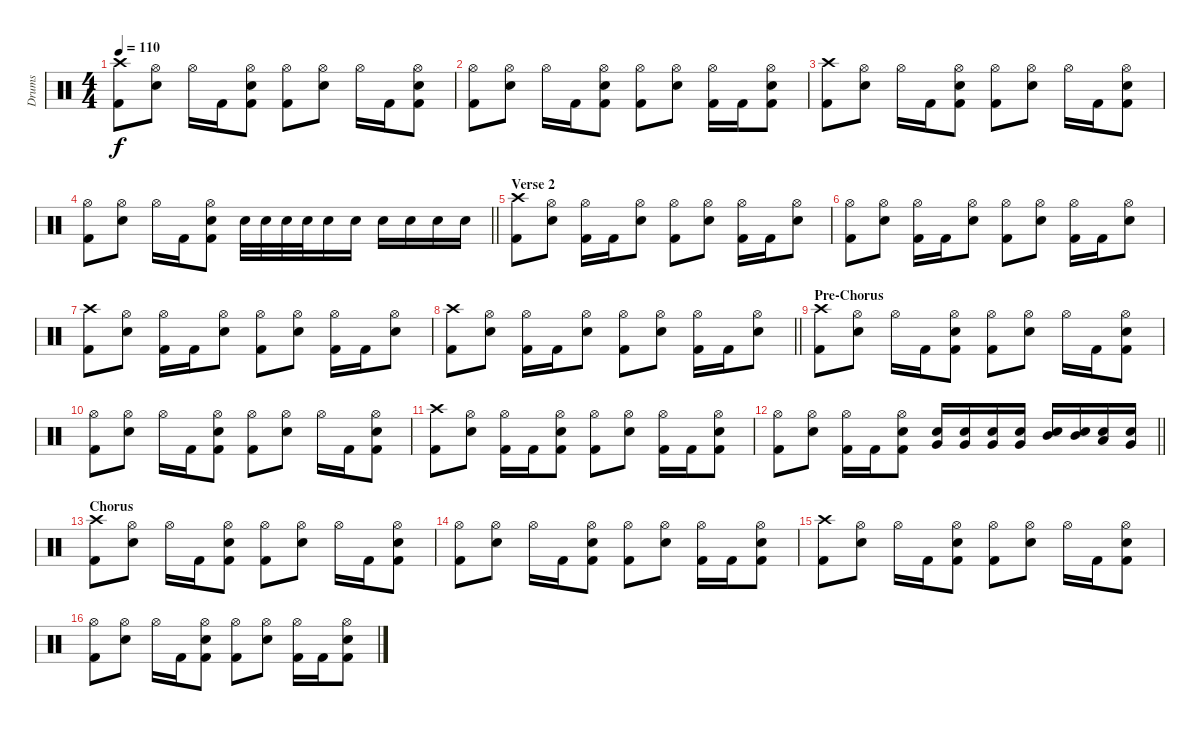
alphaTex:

\track ("Drums" "Drums") {instrument percussion}
\staff {score}
\articulation defaults
\ts (4 4)
\tempo 110
\clef neutral
\ks c
("Crash high (hit)" "Kick (hit) 2").8{dy f} ("Hi-Hat (open)" "Electric Snare (hit)").8 "Hi-Hat (open)".16 "Kick (hit) 2".16 ("Hi-Hat (open)" "Electric Snare (hit)" "Kick (hit) 2").8 ("Hi-Hat (open)" "Kick (hit) 2").8 ("Hi-Hat (open)" "Electric Snare (hit)").8 "Hi-Hat (open)".16 "Kick (hit) 2".16 ("Hi-Hat (open)" "Electric Snare (hit)" "Kick (hit) 2").8 |
("Hi-Hat (open)" "Kick (hit) 2").8 ("Hi-Hat (open)" "Electric Snare (hit)").8 "Hi-Hat (open)".16 "Kick (hit) 2".16 ("Hi-Hat (open)" "Electric Snare (hit)" "Kick (hit) 2").8 ("Hi-Hat (open)" "Kick (hit) 2").8 ("Hi-Hat (open)" "Electric Snare (hit)").8 ("Hi-Hat (open)" "Kick (hit) 2").16 "Kick (hit) 2".16 ("Hi-Hat (open)" "Electric Snare (hit)" "Kick (hit) 2").8 |
("Crash high (hit)" "Kick (hit) 2").8 ("Hi-Hat (open)" "Electric Snare (hit)").8 "Hi-Hat (open)".16 "Kick (hit) 2".16 ("Hi-Hat (open)" "Electric Snare (hit)" "Kick (hit) 2").8 ("Hi-Hat (open)" "Kick (hit) 2").8 ("Hi-Hat (open)" "Electric Snare (hit)").8 "Hi-Hat (open)".16 "Kick (hit) 2".16 ("Hi-Hat (open)" "Electric Snare (hit)" "Kick (hit) 2").8 |
\barLineRight lightlight
("Hi-Hat (open)" "Kick (hit) 2").8 ("Hi-Hat (open)" "Electric Snare (hit)").8 "Hi-Hat (open)".16 "Kick (hit) 2".16 ("Hi-Hat (open)" "Electric Snare (hit)" "Kick (hit) 2").8 "Electric Snare (hit)".32 "Electric Snare (hit)".32 "Electric Snare (hit)".32 "Electric Snare (hit)".32 "Electric Snare (hit)".16 "Electric Snare (hit)".16 "Electric Snare (hit)".16 "Electric Snare (hit)".16 "Electric Snare (hit)".16 "Electric Snare (hit)".16 |
\section ("" "Verse 2")
("Crash high (hit)" "Kick (hit) 2").8 ("Hi-Hat (open)" "Electric Snare (hit)").8 ("Hi-Hat (open)" "Kick (hit) 2").16 "Kick (hit) 2".16 ("Hi-Hat (open)" "Electric Snare (hit)").8 ("Hi-Hat (open)" "Kick (hit) 2").8 ("Hi-Hat (open)" "Electric Snare (hit)").8 ("Hi-Hat (open)" "Kick (hit) 2").16 "Kick (hit) 2".16 ("Hi-Hat (open)" "Electric Snare (hit)").8 |
("Hi-Hat (open)" "Kick (hit) 2").8 ("Hi-Hat (open)" "Electric Snare (hit)").8 ("Hi-Hat (open)" "Kick (hit) 2").16 "Kick (hit) 2".16 ("Hi-Hat (open)" "Electric Snare (hit)").8 ("Hi-Hat (open)" "Kick (hit) 2").8 ("Hi-Hat (open)" "Electric Snare (hit)").8 ("Hi-Hat (open)" "Kick (hit) 2").16 "Kick (hit) 2".16 ("Hi-Hat (open)" "Electric Snare (hit)").8 |
("Crash high (hit)" "Kick (hit) 2").8 ("Hi-Hat (open)" "Electric Snare (hit)").8 ("Hi-Hat (open)" "Kick (hit) 2").16 "Kick (hit) 2".16 ("Hi-Hat (open)" "Electric Snare (hit)").8 ("Hi-Hat (open)" "Kick (hit) 2").8 ("Hi-Hat (open)" "Electric Snare (hit)").8 ("Hi-Hat (open)" "Kick (hit) 2").16 "Kick (hit) 2".16 ("Hi-Hat (open)" "Electric Snare (hit)").8 |
\barLineRight lightlight
("Crash high (hit)" "Kick (hit) 2").8 ("Hi-Hat (open)" "Electric Snare (hit)").8 ("Hi-Hat (open)" "Kick (hit) 2").16 "Kick (hit) 2".16 ("Hi-Hat (open)" "Electric Snare (hit)").8 ("Hi-Hat (open)" "Kick (hit) 2").8 ("Hi-Hat (open)" "Electric Snare (hit)").8 ("Hi-Hat (open)" "Kick (hit) 2").16 "Kick (hit) 2".16 ("Hi-Hat (open)" "Electric Snare (hit)").8 |
\section ("" "Pre-Chorus")
("Crash high (hit)" "Kick (hit) 2").8 ("Hi-Hat (open)" "Electric Snare (hit)").8 "Hi-Hat (open)".16 "Kick (hit) 2".16 ("Hi-Hat (open)" "Electric Snare (hit)" "Kick (hit) 2").8 ("Hi-Hat (open)" "Kick (hit) 2").8 ("Hi-Hat (open)" "Electric Snare (hit)").8 "Hi-Hat (open)".16 "Kick (hit) 2".16 ("Hi-Hat (open)" "Electric Snare (hit)" "Kick (hit) 2").8 |
("Hi-Hat (open)" "Kick (hit) 2").8 ("Hi-Hat (open)" "Electric Snare (hit)").8 "Hi-Hat (open)".16 "Kick (hit) 2".16 ("Hi-Hat (open)" "Electric Snare (hit)" "Kick (hit) 2").8 ("Hi-Hat (open)" "Kick (hit) 2").8 ("Hi-Hat (open)" "Electric Snare (hit)").8 "Hi-Hat (open)".16 "Kick (hit) 2".16 ("Hi-Hat (open)" "Electric Snare (hit)" "Kick (hit) 2").8 |
("Crash high (hit)" "Kick (hit) 2").8 ("Hi-Hat (open)" "Electric Snare (hit)").8 ("Hi-Hat (open)" "Kick (hit) 2").16 "Kick (hit) 2".16 ("Hi-Hat (open)" "Electric Snare (hit)" "Kick (hit) 2").8 ("Hi-Hat (open)" "Kick (hit) 2").8 ("Hi-Hat (open)" "Electric Snare (hit)").8 ("Hi-Hat (open)" "Kick (hit) 2").16 "Kick (hit) 2".16 ("Hi-Hat (open)" "Electric Snare (hit)" "Kick (hit) 2").8 |
\barLineRight lightlight
("Hi-Hat (open)" "Kick (hit) 2").8 ("Hi-Hat (open)" "Electric Snare (hit)").8 ("Hi-Hat (open)" "Kick (hit) 2").16 "Kick (hit) 2".16 ("Hi-Hat (open)" "Electric Snare (hit)" "Kick (hit) 2").8 ("Very Low Tom (hit)" "Electric Snare (hit)").16 ("Very Low Tom (hit)" "Electric Snare (hit)").16 ("Very Low Tom (hit)" "Electric Snare (hit)").16 ("Very Low Tom (hit)" "Electric Snare (hit)").16 ("Mid Tom (hit)" "Electric Snare (hit)").16 ("Mid Tom (hit)" "Electric Snare (hit)").16 ("Low Tom (hit)" "Electric Snare (hit)").16 ("Very Low Tom (hit)" "Electric Snare (hit)").16 |
\section ("" "Chorus")
("Crash high (hit)" "Kick (hit) 2").8 ("Hi-Hat (open)" "Electric Snare (hit)").8 "Hi-Hat (open)".16 "Kick (hit) 2".16 ("Hi-Hat (open)" "Electric Snare (hit)" "Kick (hit) 2").8 ("Hi-Hat (open)" "Kick (hit) 2").8 ("Hi-Hat (open)" "Electric Snare (hit)").8 "Hi-Hat (open)".16 "Kick (hit) 2".16 ("Hi-Hat (open)" "Electric Snare (hit)" "Kick (hit) 2").8 |
("Hi-Hat (open)" "Kick (hit) 2").8 ("Hi-Hat (open)" "Electric Snare (hit)").8 "Hi-Hat (open)".16 "Kick (hit) 2".16 ("Hi-Hat (open)" "Electric Snare (hit)" "Kick (hit) 2").8 ("Hi-Hat (open)" "Kick (hit) 2").8 ("Hi-Hat (open)" "Electric Snare (hit)").8 ("Hi-Hat (open)" "Kick (hit) 2").16 "Kick (hit) 2".16 ("Hi-Hat (open)" "Electric Snare (hit)" "Kick (hit) 2").8 |
("Crash high (hit)" "Kick (hit) 2").8 ("Hi-Hat (open)" "Electric Snare (hit)").8 "Hi-Hat (open)".16 "Kick (hit) 2".16 ("Hi-Hat (open)" "Electric Snare (hit)" "Kick (hit) 2").8 ("Hi-Hat (open)" "Kick (hit) 2").8 ("Hi-Hat (open)" "Electric Snare (hit)").8 "Hi-Hat (open)".16 "Kick (hit) 2".16 ("Hi-Hat (open)" "Electric Snare (hit)" "Kick (hit) 2").8 |
("Hi-Hat (open)" "Kick (hit) 2").8 ("Hi-Hat (open)" "Electric Snare (hit)").8 "Hi-Hat (open)".16 "Kick (hit) 2".16 ("Hi-Hat (open)" "Electric Snare (hit)" "Kick (hit) 2").8 ("Hi-Hat (open)" "Kick (hit) 2").8 ("Hi-Hat (open)" "Electric Snare (hit)").8 ("Hi-Hat (open)" "Kick (hit) 2").16 "Kick (hit) 2".16 ("Hi-Hat (open)" "Electric Snare (hit)" "Kick (hit) 2").8
